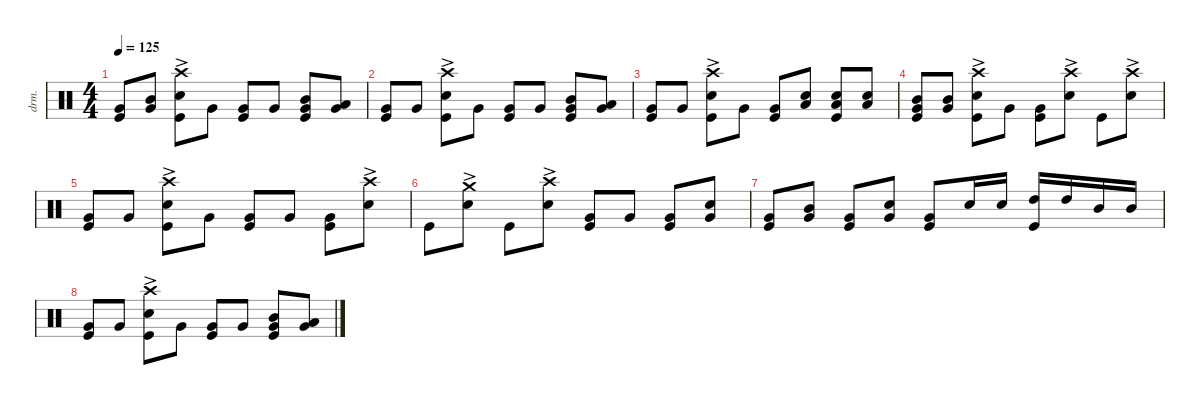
\defaultSystemsLayout 4
\hideDynamics
\bracketExtendMode nobrackets
\track ("Drums" "drm.") {defaultSystemsLayout 4 multiBarRest instrument percussion}
\staff {score}
\articulation defaults
\ts (4 4)
\tempo 125
\clef neutral
\ks c
("Kick (hit)" "Very Low Tom (hit)").8{dy f beam Up} ("Very Low Tom (hit)" "Mid Tom (hit)").8{beam Up} ("Kick (hit)" "Snare (hit) 2" "Crash high (hit)"{ac}).8{beam Down} "Very Low Tom (hit)".8{dy mf beam Down} ("Very Low Tom (hit)" "Kick (hit)").8{dy f beam Up} "Very Low Tom (hit)".8{dy mf beam Up} ("Very Low Tom (hit)" "Kick (hit)" "Mid Tom (hit)").8{dy f beam Up} ("Very Low Tom (hit)" "Low Tom (hit)").8{beam Up} |
("Kick (hit)" "Very Low Tom (hit)").8{beam Up} "Very Low Tom (hit)".8{dy mf beam Up} ("Kick (hit)" "Snare (hit) 2" "Crash high (hit)"{ac}).8{dy f beam Down} "Very Low Tom (hit)".8{dy mf beam Down} ("Very Low Tom (hit)" "Kick (hit)").8{dy f beam Up} "Very Low Tom (hit)".8{beam Up} ("Very Low Tom (hit)" "Kick (hit)" "Mid Tom (hit)").8{beam Up} ("Very Low Tom (hit)" "Low Tom (hit)").8{beam Up} |
("Kick (hit)" "Very Low Tom (hit)").8{beam Up} "Very Low Tom (hit)".8{dy mf beam Up} ("Kick (hit)" "Snare (hit) 2" "Crash high (hit)"{ac}).8{dy f beam Down} "Very Low Tom (hit)".8{dy mf beam Down} ("Very Low Tom (hit)" "Kick (hit)").8{dy f beam Up} ("Low Tom (hit)" "Snare (hit) 2").8{beam Up} ("Low Tom (hit)" "Kick (hit)" "Snare (hit) 2").8{beam Up} ("Low Tom (hit)" "Snare (hit) 2").8{beam Up} |
("Kick (hit)" "Very Low Tom (hit)" "Mid Tom (hit)").8{beam Up} ("Very Low Tom (hit)" "Mid Tom (hit)").8{beam Up} ("Kick (hit)" "Snare (hit) 2" "Crash high (hit)"{ac}).8{beam Down} "Very Low Tom (hit)".8{dy mf beam Down} ("Very Low Tom (hit)" "Kick (hit)").8{dy f beam Down} ("Snare (hit) 2" "Crash high (hit)"{ac}).8{beam Down} "Kick (hit)".8{beam Down} ("Snare (hit) 2" "Crash high (hit)"{ac}).8{beam Down} |
("Kick (hit)" "Very Low Tom (hit)").8{beam Up} "Very Low Tom (hit)".8{dy mf beam Up} ("Kick (hit)" "Snare (hit) 2" "Crash high (hit)"{ac}).8{dy f beam Down} "Very Low Tom (hit)".8{dy mf beam Down} ("Kick (hit)" "Very Low Tom (hit)").8{dy f beam Up} "Very Low Tom (hit)".8{dy mf beam Up} ("Very Low Tom (hit)" "Kick (hit)").8{dy f beam Down} ("Snare (hit) 2" "Crash high (hit)"{ac}).8{beam Down} |
"Kick (hit)".8{beam Down} ("Crash medium (hit)"{ac} "Snare (hit) 2").8{beam Down} "Kick (hit)".8{beam Down} ("Snare (hit) 2" "Crash high (hit)"{ac}).8{beam Down} ("Kick (hit)" "Very Low Tom (hit)").8{beam Up} "Very Low Tom (hit)".8{dy mf beam Up} ("Kick (hit)" "Very Low Tom (hit)").8{dy f beam Up} ("Very Low Tom (hit)" "Snare (hit) 2").8{beam Up} |
("Kick (hit)" "Very Low Tom (hit)").8{beam Up} ("Very Low Tom (hit)" "Mid Tom (hit)").8{beam Up} ("Kick (hit)" "Very Low Tom (hit)").8{beam Up} ("Very Low Tom (hit)" "Snare (hit) 2").8{beam Up} ("Kick (hit)" "Very Low Tom (hit)").8{beam Up} "Snare (hit) 2".16{beam Up} "Snare (hit) 2".16{beam Up} ("High Tom (hit)" "Kick (hit)").16{beam Up} "High Tom (hit)".16{beam Up} "Mid Tom (hit)".16{beam Up} "Mid Tom (hit)".16{beam Up} |
("Very Low Tom (hit)" "Kick (hit)").8{beam Up} "Very Low Tom (hit)".8{dy mf beam Up} ("Kick (hit)" "Snare (hit) 2" "Crash high (hit)"{ac}).8{dy f beam Down} "Very Low Tom (hit)".8{dy mf beam Down} ("Kick (hit)" "Very Low Tom (hit)").8{dy f beam Up} "Very Low Tom (hit)".8{beam Up} ("Kick (hit)" "Very Low Tom (hit)" "Mid Tom (hit)").8{beam Up} ("Low Tom (hit)" "Very Low Tom (hit)").8{beam Up}
